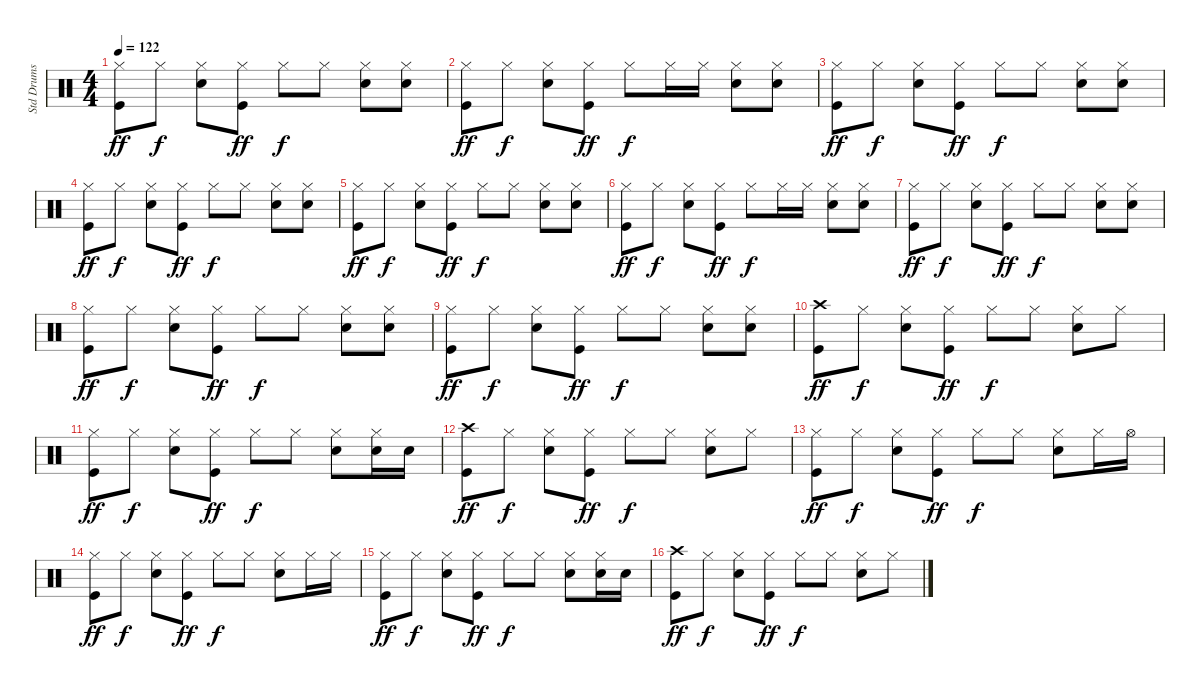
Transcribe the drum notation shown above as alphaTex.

\track ("Std Drums" "Std Drums") {instrument percussion}
\staff {score}
\articulation defaults
\ts (4 4)
\tempo 122
\clef neutral
\ks c
("Hi-Hat (closed)" "Kick (hit)").8{dy ff} "Hi-Hat (closed)".8{dy f} ("Hi-Hat (closed)" "Snare (hit) 2").8 ("Hi-Hat (closed)" "Kick (hit)").8{dy ff} "Hi-Hat (closed)".8{dy f} "Hi-Hat (closed)".8 ("Hi-Hat (closed)" "Snare (hit) 2").8 ("Hi-Hat (closed)" "Snare (hit) 2").8 |
("Hi-Hat (closed)" "Kick (hit)").8{dy ff} "Hi-Hat (closed)".8{dy f} ("Hi-Hat (closed)" "Snare (hit) 2").8 ("Hi-Hat (closed)" "Kick (hit)").8{dy ff} "Hi-Hat (closed)".8{dy f} "Hi-Hat (closed)".16 "Hi-Hat (closed)".16 ("Hi-Hat (closed)" "Snare (hit) 2").8 ("Hi-Hat (closed)" "Snare (hit) 2").8 |
("Hi-Hat (closed)" "Kick (hit)").8{dy ff} "Hi-Hat (closed)".8{dy f} ("Hi-Hat (closed)" "Snare (hit) 2").8 ("Hi-Hat (closed)" "Kick (hit)").8{dy ff} "Hi-Hat (closed)".8{dy f} "Hi-Hat (closed)".8 ("Hi-Hat (closed)" "Snare (hit) 2").8 ("Hi-Hat (closed)" "Snare (hit) 2").8 |
("Hi-Hat (closed)" "Kick (hit)").8{dy ff} "Hi-Hat (closed)".8{dy f} ("Hi-Hat (closed)" "Snare (hit) 2").8 ("Hi-Hat (closed)" "Kick (hit)").8{dy ff} "Hi-Hat (closed)".8{dy f} "Hi-Hat (closed)".8 ("Hi-Hat (closed)" "Snare (hit) 2").8 ("Hi-Hat (closed)" "Snare (hit) 2").8 |
("Hi-Hat (closed)" "Kick (hit)").8{dy ff} "Hi-Hat (closed)".8{dy f} ("Hi-Hat (closed)" "Snare (hit) 2").8 ("Hi-Hat (closed)" "Kick (hit)").8{dy ff} "Hi-Hat (closed)".8{dy f} "Hi-Hat (closed)".8 ("Hi-Hat (closed)" "Snare (hit) 2").8 ("Hi-Hat (closed)" "Snare (hit) 2").8 |
("Hi-Hat (closed)" "Kick (hit)").8{dy ff} "Hi-Hat (closed)".8{dy f} ("Hi-Hat (closed)" "Snare (hit) 2").8 ("Hi-Hat (closed)" "Kick (hit)").8{dy ff} "Hi-Hat (closed)".8{dy f} "Hi-Hat (closed)".16 "Hi-Hat (closed)".16 ("Hi-Hat (closed)" "Snare (hit) 2").8 ("Hi-Hat (closed)" "Snare (hit) 2").8 |
("Hi-Hat (closed)" "Kick (hit)").8{dy ff} "Hi-Hat (closed)".8{dy f} ("Hi-Hat (closed)" "Snare (hit) 2").8 ("Hi-Hat (closed)" "Kick (hit)").8{dy ff} "Hi-Hat (closed)".8{dy f} "Hi-Hat (closed)".8 ("Hi-Hat (closed)" "Snare (hit) 2").8 ("Hi-Hat (closed)" "Snare (hit) 2").8 |
("Hi-Hat (closed)" "Kick (hit)").8{dy ff} "Hi-Hat (closed)".8{dy f} ("Hi-Hat (closed)" "Snare (hit) 2").8 ("Hi-Hat (closed)" "Kick (hit)").8{dy ff} "Hi-Hat (closed)".8{dy f} "Hi-Hat (closed)".8 ("Hi-Hat (closed)" "Snare (hit) 2").8 ("Hi-Hat (closed)" "Snare (hit) 2").8 |
("Hi-Hat (closed)" "Kick (hit)").8{dy ff} "Hi-Hat (closed)".8{dy f} ("Hi-Hat (closed)" "Snare (hit) 2").8 ("Hi-Hat (closed)" "Kick (hit)").8{dy ff} "Hi-Hat (closed)".8{dy f} "Hi-Hat (closed)".8 ("Hi-Hat (closed)" "Snare (hit) 2").8 ("Hi-Hat (closed)" "Snare (hit) 2").8 |
("Kick (hit)" "Crash high (hit)").8{dy ff} "Hi-Hat (closed)".8{dy f} ("Hi-Hat (closed)" "Snare (hit) 2").8 ("Hi-Hat (closed)" "Kick (hit)").8{dy ff} "Hi-Hat (closed)".8{dy f} "Hi-Hat (closed)".8 ("Hi-Hat (closed)" "Snare (hit) 2").8 "Hi-Hat (closed)".8 |
("Hi-Hat (closed)" "Kick (hit)").8{dy ff} "Hi-Hat (closed)".8{dy f} ("Hi-Hat (closed)" "Snare (hit) 2").8 ("Hi-Hat (closed)" "Kick (hit)").8{dy ff} "Hi-Hat (closed)".8{dy f} "Hi-Hat (closed)".8 ("Hi-Hat (closed)" "Snare (hit) 2").8 ("Hi-Hat (closed)" "Snare (hit) 2").16 "Snare (hit) 2".16 |
("Crash high (hit)" "Kick (hit)").8{dy ff} "Hi-Hat (closed)".8{dy f} ("Hi-Hat (closed)" "Snare (hit) 2").8 ("Hi-Hat (closed)" "Kick (hit)").8{dy ff} "Hi-Hat (closed)".8{dy f} "Hi-Hat (closed)".8 ("Hi-Hat (closed)" "Snare (hit) 2").8 "Hi-Hat (closed)".8 |
("Hi-Hat (closed)" "Kick (hit)").8{dy ff} "Hi-Hat (closed)".8{dy f} ("Hi-Hat (closed)" "Snare (hit) 2").8 ("Hi-Hat (closed)" "Kick (hit)").8{dy ff} "Hi-Hat (closed)".8{dy f} "Hi-Hat (closed)".8 ("Hi-Hat (closed)" "Snare (hit) 2").8 "Hi-Hat (closed)".16 "Hi-Hat (open)".16 |
("Hi-Hat (closed)" "Kick (hit)").8{dy ff} "Hi-Hat (closed)".8{dy f} ("Hi-Hat (closed)" "Snare (hit) 2").8 ("Hi-Hat (closed)" "Kick (hit)").8{dy ff} "Hi-Hat (closed)".8{dy f} "Hi-Hat (closed)".8 ("Hi-Hat (closed)" "Snare (hit) 2").8 "Hi-Hat (closed)".16 "Hi-Hat (closed)".16 |
("Hi-Hat (closed)" "Kick (hit)").8{dy ff} "Hi-Hat (closed)".8{dy f} ("Hi-Hat (closed)" "Snare (hit) 2").8 ("Hi-Hat (closed)" "Kick (hit)").8{dy ff} "Hi-Hat (closed)".8{dy f} "Hi-Hat (closed)".8 ("Hi-Hat (closed)" "Snare (hit) 2").8 ("Hi-Hat (closed)" "Snare (hit) 2").16 "Snare (hit) 2".16 |
("Kick (hit)" "Crash high (hit)").8{dy ff} "Hi-Hat (closed)".8{dy f} ("Hi-Hat (closed)" "Snare (hit) 2").8 ("Hi-Hat (closed)" "Kick (hit)").8{dy ff} "Hi-Hat (closed)".8{dy f} "Hi-Hat (closed)".8 ("Hi-Hat (closed)" "Snare (hit) 2").8 "Hi-Hat (closed)".8
